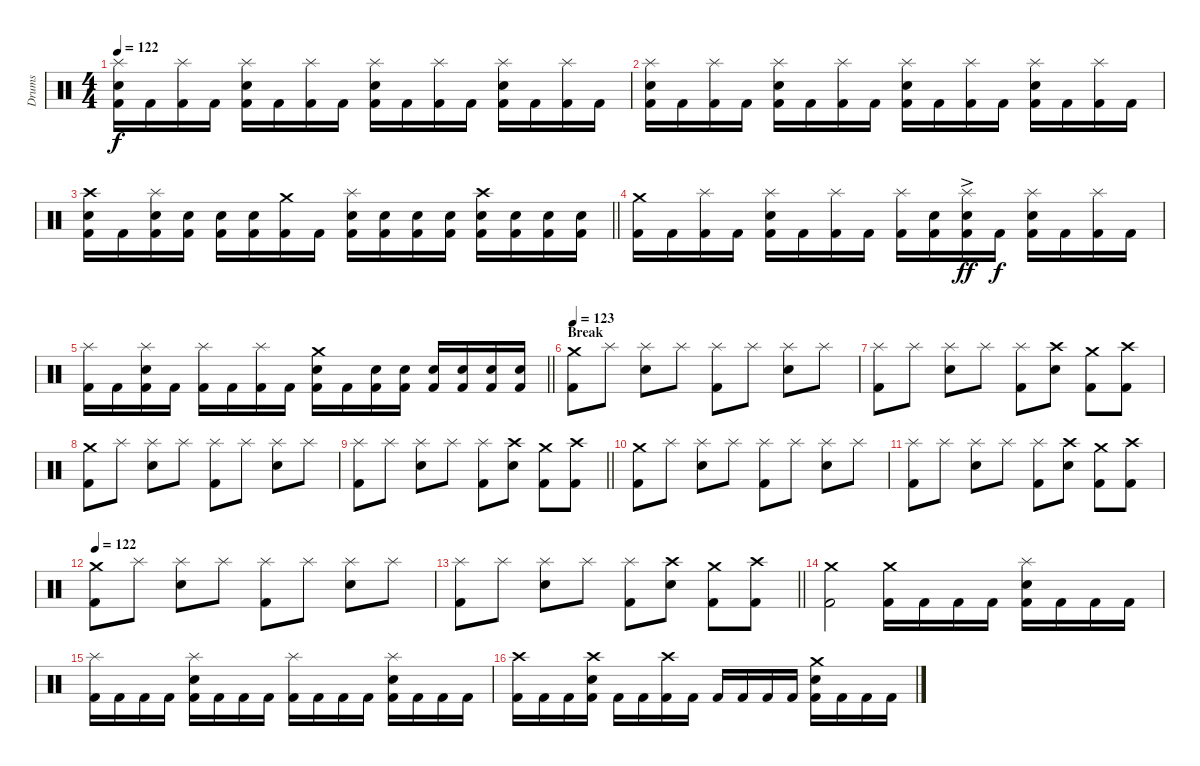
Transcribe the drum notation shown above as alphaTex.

\track ("Drums" "Drums") {instrument percussion}
\staff {score}
\articulation defaults
\ts (4 4)
\tempo 122
\clef neutral
\ks c
("Kick (hit) 2" "Snare (hit) 2" "Splash (hit)").16{dy f} "Kick (hit) 2".16 ("Kick (hit) 2" "Splash (hit)").16 "Kick (hit) 2".16 ("Kick (hit) 2" "Snare (hit) 2" "Splash (hit)").16 "Kick (hit) 2".16 ("Kick (hit) 2" "Splash (hit)").16 "Kick (hit) 2".16 ("Kick (hit) 2" "Snare (hit) 2" "Splash (hit)").16 "Kick (hit) 2".16 ("Kick (hit) 2" "Splash (hit)").16 "Kick (hit) 2".16 ("Kick (hit) 2" "Snare (hit) 2" "Splash (hit)").16 "Kick (hit) 2".16 ("Kick (hit) 2" "Splash (hit)").16 "Kick (hit) 2".16 |
("Kick (hit) 2" "Snare (hit) 2" "Splash (hit)").16 "Kick (hit) 2".16 ("Kick (hit) 2" "Splash (hit)").16 "Kick (hit) 2".16 ("Kick (hit) 2" "Snare (hit) 2" "Splash (hit)").16 "Kick (hit) 2".16 ("Kick (hit) 2" "Splash (hit)").16 "Kick (hit) 2".16 ("Kick (hit) 2" "Snare (hit) 2" "Splash (hit)").16 "Kick (hit) 2".16 ("Kick (hit) 2" "Splash (hit)").16 "Kick (hit) 2".16 ("Kick (hit) 2" "Snare (hit) 2" "Splash (hit)").16 "Kick (hit) 2".16 ("Kick (hit) 2" "Splash (hit)").16 "Kick (hit) 2".16 |
\barLineRight lightlight
("Kick (hit) 2" "Snare (hit) 2" "Crash high (hit)").16 "Kick (hit) 2".16 ("Kick (hit) 2" "Snare (hit) 2" "Splash (hit)").16 ("Kick (hit) 2" "Snare (hit) 2").16 ("Kick (hit) 2" "Snare (hit) 2").16 ("Kick (hit) 2" "Snare (hit) 2").16 ("Kick (hit) 2" "Crash medium (hit)").16 "Kick (hit) 2".16 ("Kick (hit) 2" "Snare (hit) 2" "Splash (hit)").16 ("Kick (hit) 2" "Snare (hit) 2").16 ("Kick (hit) 2" "Snare (hit) 2").16 ("Kick (hit) 2" "Snare (hit) 2").16 ("Kick (hit) 2" "Snare (hit) 2" "Crash high (hit)").16 ("Kick (hit) 2" "Snare (hit) 2").16 ("Kick (hit) 2" "Snare (hit) 2").16 ("Kick (hit) 2" "Snare (hit) 2").16 |
\section ("" "")
("Kick (hit) 2" "Crash medium (hit)").16 "Kick (hit) 2".16 ("Kick (hit) 2" "Splash (hit)").16 "Kick (hit) 2".16 ("Kick (hit) 2" "Snare (hit) 2" "Splash (hit)").16 "Kick (hit) 2".16 ("Kick (hit) 2" "Splash (hit)").16 "Kick (hit) 2".16 ("Kick (hit) 2" "Splash (hit)").16 ("Kick (hit) 2" "Snare (hit) 2").16 ("Kick (hit) 2" "Snare (hit) 2"{ac} "Splash (hit)").16{dy ff} "Kick (hit) 2".16{dy f} ("Kick (hit) 2" "Snare (hit) 2" "Splash (hit)").16 "Kick (hit) 2".16 ("Kick (hit) 2" "Splash (hit)").16 "Kick (hit) 2".16 |
\barLineRight lightlight
("Kick (hit) 2" "Splash (hit)").16 "Kick (hit) 2".16 ("Kick (hit) 2" "Snare (hit) 2" "Splash (hit)").16 "Kick (hit) 2".16 ("Kick (hit) 2" "Splash (hit)").16 "Kick (hit) 2".16 ("Kick (hit) 2" "Splash (hit)").16 "Kick (hit) 2".16 ("Kick (hit) 2" "Snare (hit) 2" "Crash medium (hit)").16 "Kick (hit) 2".16 ("Kick (hit) 2" "Snare (hit) 2").16 ("Kick (hit) 2" "Snare (hit) 2").16 ("Kick (hit) 2" "Snare (hit) 2").16 ("Kick (hit) 2" "Snare (hit) 2").16 ("Kick (hit) 2" "Snare (hit) 2").16 ("Kick (hit) 2" "Snare (hit) 2").16 |
\section ("" "Break")
\tempo 123
("Kick (hit) 2" "Crash medium (hit)").8 "Splash (hit)".8 ("Snare (hit) 2" "Splash (hit)").8 "Splash (hit)".8 ("Kick (hit) 2" "Splash (hit)").8 "Splash (hit)".8 ("Snare (hit) 2" "Splash (hit)").8 "Splash (hit)".8 |
("Kick (hit) 2" "Splash (hit)").8 "Splash (hit)".8 ("Snare (hit) 2" "Splash (hit)").8 "Splash (hit)".8 ("Kick (hit) 2" "Splash (hit)").8 ("Snare (hit) 2" "Crash high (hit)").8 ("Kick (hit) 2" "Crash medium (hit)").8 ("Kick (hit) 2" "Crash high (hit)").8 |
("Kick (hit) 2" "Crash medium (hit)").8 "Splash (hit)".8 ("Snare (hit) 2" "Splash (hit)").8 "Splash (hit)".8 ("Kick (hit) 2" "Splash (hit)").8 "Splash (hit)".8 ("Snare (hit) 2" "Splash (hit)").8 "Splash (hit)".8 |
\barLineRight lightlight
("Kick (hit) 2" "Splash (hit)").8 "Splash (hit)".8 ("Snare (hit) 2" "Splash (hit)").8 "Splash (hit)".8 ("Kick (hit) 2" "Splash (hit)").8 ("Snare (hit) 2" "Crash high (hit)").8 ("Kick (hit) 2" "Crash medium (hit)").8 ("Kick (hit) 2" "Crash high (hit)").8 |
\section ("" "")
("Kick (hit) 2" "Crash medium (hit)").8 "Splash (hit)".8 ("Snare (hit) 2" "Splash (hit)").8 "Splash (hit)".8 ("Kick (hit) 2" "Splash (hit)").8 "Splash (hit)".8 ("Snare (hit) 2" "Splash (hit)").8 "Splash (hit)".8 |
("Kick (hit) 2" "Splash (hit)").8 "Splash (hit)".8 ("Snare (hit) 2" "Splash (hit)").8 "Splash (hit)".8 ("Kick (hit) 2" "Splash (hit)").8 ("Snare (hit) 2" "Crash high (hit)").8 ("Kick (hit) 2" "Crash medium (hit)").8 ("Kick (hit) 2" "Crash high (hit)").8 |
\tempo 122
("Kick (hit) 2" "Crash medium (hit)").8 "Splash (hit)".8 ("Snare (hit) 2" "Splash (hit)").8 "Splash (hit)".8 ("Kick (hit) 2" "Splash (hit)").8 "Splash (hit)".8 ("Snare (hit) 2" "Splash (hit)").8 "Splash (hit)".8 |
\barLineRight lightlight
("Kick (hit) 2" "Splash (hit)").8 "Splash (hit)".8 ("Snare (hit) 2" "Splash (hit)").8 "Splash (hit)".8 ("Kick (hit) 2" "Splash (hit)").8 ("Snare (hit) 2" "Crash high (hit)").8 ("Kick (hit) 2" "Crash medium (hit)").8 ("Kick (hit) 2" "Crash high (hit)").8 |
\section ("" "")
("Kick (hit) 2" "Crash medium (hit)").2 ("Kick (hit) 2" "Crash medium (hit)").16 "Kick (hit) 2".16 "Kick (hit) 2".16 "Kick (hit) 2".16 ("Kick (hit) 2" "Snare (hit) 2" "Splash (hit)").16 "Kick (hit) 2".16 "Kick (hit) 2".16 "Kick (hit) 2".16 |
("Kick (hit) 2" "Splash (hit)").16 "Kick (hit) 2".16 "Kick (hit) 2".16 "Kick (hit) 2".16 ("Kick (hit) 2" "Snare (hit) 2" "Splash (hit)").16 "Kick (hit) 2".16 "Kick (hit) 2".16 "Kick (hit) 2".16 ("Kick (hit) 2" "Splash (hit)").16 "Kick (hit) 2".16 "Kick (hit) 2".16 "Kick (hit) 2".16 ("Kick (hit) 2" "Snare (hit) 2" "Splash (hit)").16 "Kick (hit) 2".16 "Kick (hit) 2".16 "Kick (hit) 2".16 |
("Kick (hit) 2" "Crash high (hit)").16 "Kick (hit) 2".16 "Kick (hit) 2".16 ("Kick (hit) 2" "Snare (hit) 2" "Crash high (hit)").16 "Kick (hit) 2".16 "Kick (hit) 2".16 ("Kick (hit) 2" "Crash high (hit)").16 "Kick (hit) 2".16 "Kick (hit) 2".16 "Kick (hit) 2".16 "Kick (hit) 2".16 "Kick (hit) 2".16 ("Kick (hit) 2" "Snare (hit) 2" "Crash medium (hit)").16 "Kick (hit) 2".16 "Kick (hit) 2".16 "Kick (hit) 2".16
